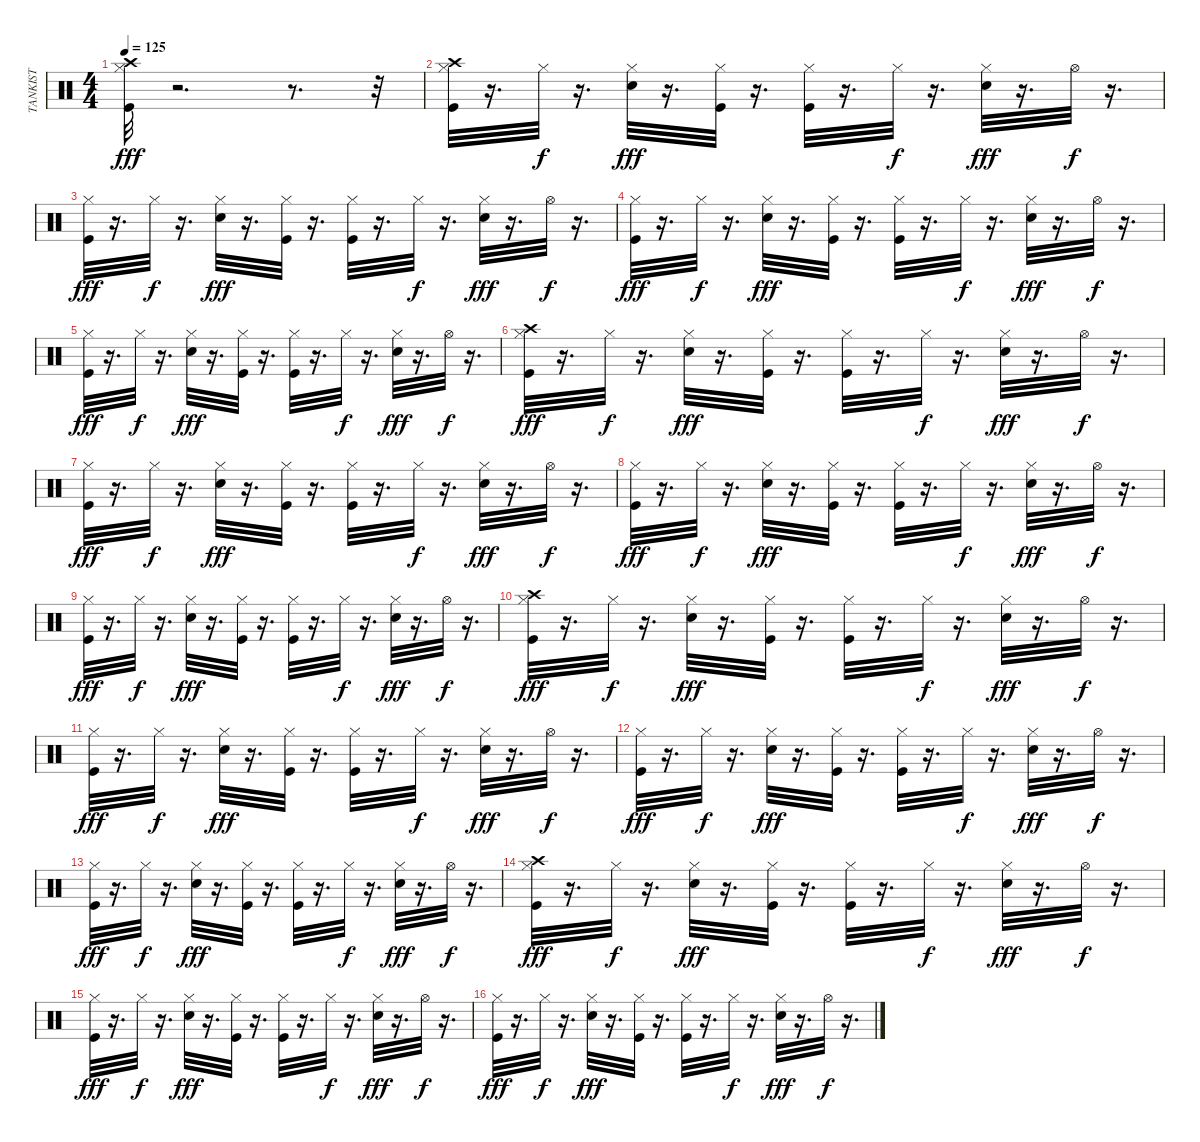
\track ("TANKIST" "TANKIST") {instrument percussion}
\staff {score}
\articulation defaults
\ts (4 4)
\tempo 125
\clef neutral
\ks c
("Crash high (hit)" "Kick (hit)" "Hi-Hat (closed)").32{dy fff} r.2{d} r.8{d} r.32 |
("Crash high (hit)" "Hi-Hat (closed)" "Kick (hit)").32 r.16{d} "Hi-Hat (closed)".32{dy f} r.16{d} ("Hi-Hat (closed)" "Electric Snare (hit)").32{dy fff} r.16{d} ("Hi-Hat (closed)" "Kick (hit)").32 r.16{d} ("Hi-Hat (closed)" "Kick (hit)").32 r.16{d} "Hi-Hat (closed)".32{dy f} r.16{d} ("Hi-Hat (closed)" "Electric Snare (hit)").32{dy fff} r.16{d} "Hi-Hat (open)".32{dy f} r.16{d} |
("Kick (hit)" "Hi-Hat (closed)").32{dy fff} r.16{d} "Hi-Hat (closed)".32{dy f} r.16{d} ("Electric Snare (hit)" "Hi-Hat (closed)").32{dy fff} r.16{d} ("Kick (hit)" "Hi-Hat (closed)").32 r.16{d} ("Kick (hit)" "Hi-Hat (closed)").32 r.16{d} "Hi-Hat (closed)".32{dy f} r.16{d} ("Electric Snare (hit)" "Hi-Hat (closed)").32{dy fff} r.16{d} "Hi-Hat (open)".32{dy f} r.16{d} |
("Hi-Hat (closed)" "Kick (hit)").32{dy fff} r.16{d} "Hi-Hat (closed)".32{dy f} r.16{d} ("Hi-Hat (closed)" "Electric Snare (hit)").32{dy fff} r.16{d} ("Hi-Hat (closed)" "Kick (hit)").32 r.16{d} ("Hi-Hat (closed)" "Kick (hit)").32 r.16{d} "Hi-Hat (closed)".32{dy f} r.16{d} ("Hi-Hat (closed)" "Electric Snare (hit)").32{dy fff} r.16{d} "Hi-Hat (open)".32{dy f} r.16{d} |
("Kick (hit)" "Hi-Hat (closed)").32{dy fff} r.16{d} "Hi-Hat (closed)".32{dy f} r.16{d} ("Electric Snare (hit)" "Hi-Hat (closed)").32{dy fff} r.16{d} ("Kick (hit)" "Hi-Hat (closed)").32 r.16{d} ("Kick (hit)" "Hi-Hat (closed)").32 r.16{d} "Hi-Hat (closed)".32{dy f} r.16{d} ("Electric Snare (hit)" "Hi-Hat (closed)").32{dy fff} r.16{d} "Hi-Hat (open)".32{dy f} r.16{d} |
("Crash high (hit)" "Hi-Hat (closed)" "Kick (hit)").32{dy fff} r.16{d} "Hi-Hat (closed)".32{dy f} r.16{d} ("Hi-Hat (closed)" "Electric Snare (hit)").32{dy fff} r.16{d} ("Hi-Hat (closed)" "Kick (hit)").32 r.16{d} ("Hi-Hat (closed)" "Kick (hit)").32 r.16{d} "Hi-Hat (closed)".32{dy f} r.16{d} ("Hi-Hat (closed)" "Electric Snare (hit)").32{dy fff} r.16{d} "Hi-Hat (open)".32{dy f} r.16{d} |
("Kick (hit)" "Hi-Hat (closed)").32{dy fff} r.16{d} "Hi-Hat (closed)".32{dy f} r.16{d} ("Electric Snare (hit)" "Hi-Hat (closed)").32{dy fff} r.16{d} ("Kick (hit)" "Hi-Hat (closed)").32 r.16{d} ("Kick (hit)" "Hi-Hat (closed)").32 r.16{d} "Hi-Hat (closed)".32{dy f} r.16{d} ("Electric Snare (hit)" "Hi-Hat (closed)").32{dy fff} r.16{d} "Hi-Hat (open)".32{dy f} r.16{d} |
("Hi-Hat (closed)" "Kick (hit)").32{dy fff} r.16{d} "Hi-Hat (closed)".32{dy f} r.16{d} ("Hi-Hat (closed)" "Electric Snare (hit)").32{dy fff} r.16{d} ("Hi-Hat (closed)" "Kick (hit)").32 r.16{d} ("Hi-Hat (closed)" "Kick (hit)").32 r.16{d} "Hi-Hat (closed)".32{dy f} r.16{d} ("Hi-Hat (closed)" "Electric Snare (hit)").32{dy fff} r.16{d} "Hi-Hat (open)".32{dy f} r.16{d} |
("Kick (hit)" "Hi-Hat (closed)").32{dy fff} r.16{d} "Hi-Hat (closed)".32{dy f} r.16{d} ("Electric Snare (hit)" "Hi-Hat (closed)").32{dy fff} r.16{d} ("Kick (hit)" "Hi-Hat (closed)").32 r.16{d} ("Kick (hit)" "Hi-Hat (closed)").32 r.16{d} "Hi-Hat (closed)".32{dy f} r.16{d} ("Electric Snare (hit)" "Hi-Hat (closed)").32{dy fff} r.16{d} "Hi-Hat (open)".32{dy f} r.16{d} |
("Crash high (hit)" "Hi-Hat (closed)" "Kick (hit)").32{dy fff} r.16{d} "Hi-Hat (closed)".32{dy f} r.16{d} ("Hi-Hat (closed)" "Electric Snare (hit)").32{dy fff} r.16{d} ("Hi-Hat (closed)" "Kick (hit)").32 r.16{d} ("Hi-Hat (closed)" "Kick (hit)").32 r.16{d} "Hi-Hat (closed)".32{dy f} r.16{d} ("Hi-Hat (closed)" "Electric Snare (hit)").32{dy fff} r.16{d} "Hi-Hat (open)".32{dy f} r.16{d} |
("Kick (hit)" "Hi-Hat (closed)").32{dy fff} r.16{d} "Hi-Hat (closed)".32{dy f} r.16{d} ("Electric Snare (hit)" "Hi-Hat (closed)").32{dy fff} r.16{d} ("Kick (hit)" "Hi-Hat (closed)").32 r.16{d} ("Kick (hit)" "Hi-Hat (closed)").32 r.16{d} "Hi-Hat (closed)".32{dy f} r.16{d} ("Electric Snare (hit)" "Hi-Hat (closed)").32{dy fff} r.16{d} "Hi-Hat (open)".32{dy f} r.16{d} |
("Hi-Hat (closed)" "Kick (hit)").32{dy fff} r.16{d} "Hi-Hat (closed)".32{dy f} r.16{d} ("Hi-Hat (closed)" "Electric Snare (hit)").32{dy fff} r.16{d} ("Hi-Hat (closed)" "Kick (hit)").32 r.16{d} ("Hi-Hat (closed)" "Kick (hit)").32 r.16{d} "Hi-Hat (closed)".32{dy f} r.16{d} ("Hi-Hat (closed)" "Electric Snare (hit)").32{dy fff} r.16{d} "Hi-Hat (open)".32{dy f} r.16{d} |
("Kick (hit)" "Hi-Hat (closed)").32{dy fff} r.16{d} "Hi-Hat (closed)".32{dy f} r.16{d} ("Electric Snare (hit)" "Hi-Hat (closed)").32{dy fff} r.16{d} ("Kick (hit)" "Hi-Hat (closed)").32 r.16{d} ("Kick (hit)" "Hi-Hat (closed)").32 r.16{d} "Hi-Hat (closed)".32{dy f} r.16{d} ("Electric Snare (hit)" "Hi-Hat (closed)").32{dy fff} r.16{d} "Hi-Hat (open)".32{dy f} r.16{d} |
("Crash high (hit)" "Hi-Hat (closed)" "Kick (hit)").32{dy fff} r.16{d} "Hi-Hat (closed)".32{dy f} r.16{d} ("Hi-Hat (closed)" "Electric Snare (hit)").32{dy fff} r.16{d} ("Hi-Hat (closed)" "Kick (hit)").32 r.16{d} ("Hi-Hat (closed)" "Kick (hit)").32 r.16{d} "Hi-Hat (closed)".32{dy f} r.16{d} ("Hi-Hat (closed)" "Electric Snare (hit)").32{dy fff} r.16{d} "Hi-Hat (open)".32{dy f} r.16{d} |
("Kick (hit)" "Hi-Hat (closed)").32{dy fff} r.16{d} "Hi-Hat (closed)".32{dy f} r.16{d} ("Electric Snare (hit)" "Hi-Hat (closed)").32{dy fff} r.16{d} ("Kick (hit)" "Hi-Hat (closed)").32 r.16{d} ("Kick (hit)" "Hi-Hat (closed)").32 r.16{d} "Hi-Hat (closed)".32{dy f} r.16{d} ("Electric Snare (hit)" "Hi-Hat (closed)").32{dy fff} r.16{d} "Hi-Hat (open)".32{dy f} r.16{d} |
("Hi-Hat (closed)" "Kick (hit)").32{dy fff} r.16{d} "Hi-Hat (closed)".32{dy f} r.16{d} ("Hi-Hat (closed)" "Electric Snare (hit)").32{dy fff} r.16{d} ("Hi-Hat (closed)" "Kick (hit)").32 r.16{d} ("Hi-Hat (closed)" "Kick (hit)").32 r.16{d} "Hi-Hat (closed)".32{dy f} r.16{d} ("Hi-Hat (closed)" "Electric Snare (hit)").32{dy fff} r.16{d} "Hi-Hat (open)".32{dy f} r.16{d}
